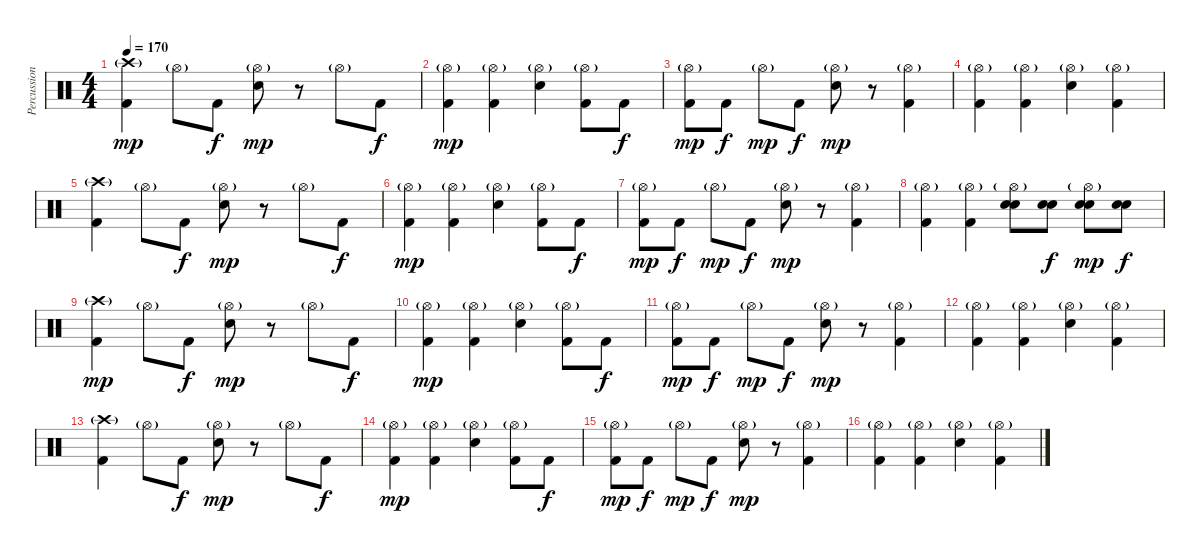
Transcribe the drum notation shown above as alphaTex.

\track ("Percussion" "Percussion") {instrument percussion}
\staff {score}
\articulation defaults
\ts (4 4)
\tempo 170
\clef neutral
\ks c
("Crash high (hit)"{g} "Kick (hit) 2").4{dy mp} "Hi-Hat (open)"{g}.8 "Kick (hit) 2".8{dy f} ("Hi-Hat (open)"{g} "Electric Snare (hit)").8{dy mp} r.8 "Hi-Hat (open)"{g}.8 "Kick (hit) 2".8{dy f} |
("Hi-Hat (open)"{g} "Kick (hit) 2").4{dy mp} ("Hi-Hat (open)"{g} "Kick (hit) 2").4 ("Hi-Hat (open)"{g} "Electric Snare (hit)").4 ("Hi-Hat (open)"{g} "Kick (hit) 2").8 "Kick (hit) 2".8{dy f} |
("Hi-Hat (open)"{g} "Kick (hit) 2").8{dy mp} "Kick (hit) 2".8{dy f} "Hi-Hat (open)"{g}.8{dy mp} "Kick (hit) 2".8{dy f} ("Hi-Hat (open)"{g} "Electric Snare (hit)").8{dy mp} r.8 ("Hi-Hat (open)"{g} "Kick (hit) 2").4 |
("Hi-Hat (open)"{g} "Kick (hit) 2").4 ("Hi-Hat (open)"{g} "Kick (hit) 2").4 ("Hi-Hat (open)"{g} "Electric Snare (hit)").4 ("Hi-Hat (open)"{g} "Kick (hit) 2").4 |
("Crash high (hit)"{g} "Kick (hit) 2").4 "Hi-Hat (open)"{g}.8 "Kick (hit) 2".8{dy f} ("Hi-Hat (open)"{g} "Electric Snare (hit)").8{dy mp} r.8 "Hi-Hat (open)"{g}.8 "Kick (hit) 2".8{dy f} |
("Hi-Hat (open)"{g} "Kick (hit) 2").4{dy mp} ("Hi-Hat (open)"{g} "Kick (hit) 2").4 ("Hi-Hat (open)"{g} "Electric Snare (hit)").4 ("Hi-Hat (open)"{g} "Kick (hit) 2").8 "Kick (hit) 2".8{dy f} |
("Hi-Hat (open)"{g} "Kick (hit) 2").8{dy mp} "Kick (hit) 2".8{dy f} "Hi-Hat (open)"{g}.8{dy mp} "Kick (hit) 2".8{dy f} ("Hi-Hat (open)"{g} "Electric Snare (hit)").8{dy mp} r.8 ("Hi-Hat (open)"{g} "Kick (hit) 2").4 |
("Hi-Hat (open)"{g} "Kick (hit) 2").4 ("Hi-Hat (open)"{g} "Kick (hit) 2").4 ("Hi-Hat (open)"{g} "Electric Snare (hit)" "Electric Snare (hit)").8 ("Electric Snare (hit)" "Electric Snare (hit)").8{dy f} ("Hi-Hat (open)"{g} "Electric Snare (hit)" "Electric Snare (hit)").8{dy mp} ("Electric Snare (hit)" "Electric Snare (hit)").8{dy f} |
("Crash high (hit)"{g} "Kick (hit) 2").4{dy mp} "Hi-Hat (open)"{g}.8 "Kick (hit) 2".8{dy f} ("Hi-Hat (open)"{g} "Electric Snare (hit)").8{dy mp} r.8 "Hi-Hat (open)"{g}.8 "Kick (hit) 2".8{dy f} |
("Hi-Hat (open)"{g} "Kick (hit) 2").4{dy mp} ("Hi-Hat (open)"{g} "Kick (hit) 2").4 ("Hi-Hat (open)"{g} "Electric Snare (hit)").4 ("Hi-Hat (open)"{g} "Kick (hit) 2").8 "Kick (hit) 2".8{dy f} |
("Hi-Hat (open)"{g} "Kick (hit) 2").8{dy mp} "Kick (hit) 2".8{dy f} "Hi-Hat (open)"{g}.8{dy mp} "Kick (hit) 2".8{dy f} ("Hi-Hat (open)"{g} "Electric Snare (hit)").8{dy mp} r.8 ("Hi-Hat (open)"{g} "Kick (hit) 2").4 |
("Hi-Hat (open)"{g} "Kick (hit) 2").4 ("Hi-Hat (open)"{g} "Kick (hit) 2").4 ("Hi-Hat (open)"{g} "Electric Snare (hit)").4 ("Hi-Hat (open)"{g} "Kick (hit) 2").4 |
("Crash high (hit)"{g} "Kick (hit) 2").4 "Hi-Hat (open)"{g}.8 "Kick (hit) 2".8{dy f} ("Hi-Hat (open)"{g} "Electric Snare (hit)").8{dy mp} r.8 "Hi-Hat (open)"{g}.8 "Kick (hit) 2".8{dy f} |
("Hi-Hat (open)"{g} "Kick (hit) 2").4{dy mp} ("Hi-Hat (open)"{g} "Kick (hit) 2").4 ("Hi-Hat (open)"{g} "Electric Snare (hit)").4 ("Hi-Hat (open)"{g} "Kick (hit) 2").8 "Kick (hit) 2".8{dy f} |
("Hi-Hat (open)"{g} "Kick (hit) 2").8{dy mp} "Kick (hit) 2".8{dy f} "Hi-Hat (open)"{g}.8{dy mp} "Kick (hit) 2".8{dy f} ("Hi-Hat (open)"{g} "Electric Snare (hit)").8{dy mp} r.8 ("Hi-Hat (open)"{g} "Kick (hit) 2").4 |
("Hi-Hat (open)"{g} "Kick (hit) 2").4 ("Hi-Hat (open)"{g} "Kick (hit) 2").4 ("Hi-Hat (open)"{g} "Electric Snare (hit)").4 ("Hi-Hat (open)"{g} "Kick (hit) 2").4
